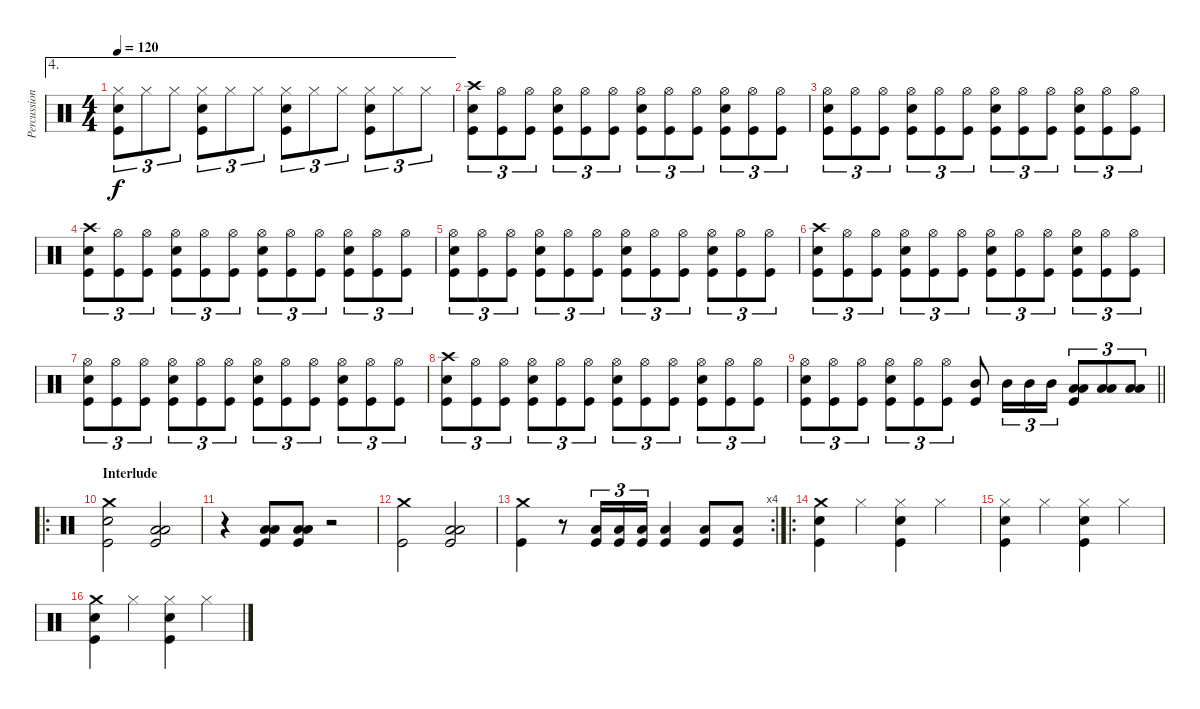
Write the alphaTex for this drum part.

\track ("Percussion" "Percussion") {instrument percussion}
\staff {score}
\articulation defaults
\ae 4
\ts (4 4)
\tempo 120
\clef neutral
\ks c
("Hi-Hat (closed)" "Snare (hit) 2" "Kick (hit)").8{tu (3 2) dy f} "Hi-Hat (closed)".8{tu (3 2)} "Hi-Hat (closed)".8{tu (3 2)} ("Hi-Hat (closed)" "Snare (hit) 2" "Kick (hit)").8{tu (3 2)} "Hi-Hat (closed)".8{tu (3 2)} "Hi-Hat (closed)".8{tu (3 2)} ("Hi-Hat (closed)" "Snare (hit) 2" "Kick (hit)").8{tu (3 2)} "Hi-Hat (closed)".8{tu (3 2)} "Hi-Hat (closed)".8{tu (3 2)} ("Hi-Hat (closed)" "Snare (hit) 2" "Kick (hit)").8{tu (3 2)} "Hi-Hat (closed)".8{tu (3 2)} "Hi-Hat (closed)".8{tu (3 2)} |
("Crash high (hit)" "Snare (hit) 2" "Kick (hit)").8{tu (3 2)} ("Hi-Hat (open)" "Kick (hit)").8{tu (3 2)} ("Hi-Hat (open)" "Kick (hit)").8{tu (3 2)} ("Hi-Hat (open)" "Snare (hit) 2" "Kick (hit)").8{tu (3 2)} ("Hi-Hat (open)" "Kick (hit)").8{tu (3 2)} ("Hi-Hat (open)" "Kick (hit)").8{tu (3 2)} ("Hi-Hat (open)" "Snare (hit) 2" "Kick (hit)").8{tu (3 2)} ("Hi-Hat (open)" "Kick (hit)").8{tu (3 2)} ("Hi-Hat (open)" "Kick (hit)").8{tu (3 2)} ("Hi-Hat (open)" "Snare (hit) 2" "Kick (hit)").8{tu (3 2)} ("Hi-Hat (open)" "Kick (hit)").8{tu (3 2)} ("Hi-Hat (open)" "Kick (hit)").8{tu (3 2)} |
("Hi-Hat (open)" "Snare (hit) 2" "Kick (hit)").8{tu (3 2)} ("Hi-Hat (open)" "Kick (hit)").8{tu (3 2)} ("Hi-Hat (open)" "Kick (hit)").8{tu (3 2)} ("Hi-Hat (open)" "Snare (hit) 2" "Kick (hit)").8{tu (3 2)} ("Hi-Hat (open)" "Kick (hit)").8{tu (3 2)} ("Hi-Hat (open)" "Kick (hit)").8{tu (3 2)} ("Hi-Hat (open)" "Snare (hit) 2" "Kick (hit)").8{tu (3 2)} ("Hi-Hat (open)" "Kick (hit)").8{tu (3 2)} ("Hi-Hat (open)" "Kick (hit)").8{tu (3 2)} ("Hi-Hat (open)" "Snare (hit) 2" "Kick (hit)").8{tu (3 2)} ("Hi-Hat (open)" "Kick (hit)").8{tu (3 2)} ("Hi-Hat (open)" "Kick (hit)").8{tu (3 2)} |
("Crash high (hit)" "Snare (hit) 2" "Kick (hit)").8{tu (3 2)} ("Hi-Hat (open)" "Kick (hit)").8{tu (3 2)} ("Hi-Hat (open)" "Kick (hit)").8{tu (3 2)} ("Hi-Hat (open)" "Snare (hit) 2" "Kick (hit)").8{tu (3 2)} ("Hi-Hat (open)" "Kick (hit)").8{tu (3 2)} ("Hi-Hat (open)" "Kick (hit)").8{tu (3 2)} ("Hi-Hat (open)" "Snare (hit) 2" "Kick (hit)").8{tu (3 2)} ("Hi-Hat (open)" "Kick (hit)").8{tu (3 2)} ("Hi-Hat (open)" "Kick (hit)").8{tu (3 2)} ("Hi-Hat (open)" "Snare (hit) 2" "Kick (hit)").8{tu (3 2)} ("Hi-Hat (open)" "Kick (hit)").8{tu (3 2)} ("Hi-Hat (open)" "Kick (hit)").8{tu (3 2)} |
("Hi-Hat (open)" "Snare (hit) 2" "Kick (hit)").8{tu (3 2)} ("Hi-Hat (open)" "Kick (hit)").8{tu (3 2)} ("Hi-Hat (open)" "Kick (hit)").8{tu (3 2)} ("Hi-Hat (open)" "Snare (hit) 2" "Kick (hit)").8{tu (3 2)} ("Hi-Hat (open)" "Kick (hit)").8{tu (3 2)} ("Hi-Hat (open)" "Kick (hit)").8{tu (3 2)} ("Hi-Hat (open)" "Snare (hit) 2" "Kick (hit)").8{tu (3 2)} ("Hi-Hat (open)" "Kick (hit)").8{tu (3 2)} ("Hi-Hat (open)" "Kick (hit)").8{tu (3 2)} ("Hi-Hat (open)" "Snare (hit) 2" "Kick (hit)").8{tu (3 2)} ("Hi-Hat (open)" "Kick (hit)").8{tu (3 2)} ("Hi-Hat (open)" "Kick (hit)").8{tu (3 2)} |
("Crash high (hit)" "Snare (hit) 2" "Kick (hit)").8{tu (3 2)} ("Hi-Hat (open)" "Kick (hit)").8{tu (3 2)} ("Hi-Hat (open)" "Kick (hit)").8{tu (3 2)} ("Hi-Hat (open)" "Snare (hit) 2" "Kick (hit)").8{tu (3 2)} ("Hi-Hat (open)" "Kick (hit)").8{tu (3 2)} ("Hi-Hat (open)" "Kick (hit)").8{tu (3 2)} ("Hi-Hat (open)" "Snare (hit) 2" "Kick (hit)").8{tu (3 2)} ("Hi-Hat (open)" "Kick (hit)").8{tu (3 2)} ("Hi-Hat (open)" "Kick (hit)").8{tu (3 2)} ("Hi-Hat (open)" "Snare (hit) 2" "Kick (hit)").8{tu (3 2)} ("Hi-Hat (open)" "Kick (hit)").8{tu (3 2)} ("Hi-Hat (open)" "Kick (hit)").8{tu (3 2)} |
("Hi-Hat (open)" "Snare (hit) 2" "Kick (hit)").8{tu (3 2)} ("Hi-Hat (open)" "Kick (hit)").8{tu (3 2)} ("Hi-Hat (open)" "Kick (hit)").8{tu (3 2)} ("Hi-Hat (open)" "Snare (hit) 2" "Kick (hit)").8{tu (3 2)} ("Hi-Hat (open)" "Kick (hit)").8{tu (3 2)} ("Hi-Hat (open)" "Kick (hit)").8{tu (3 2)} ("Hi-Hat (open)" "Snare (hit) 2" "Kick (hit)").8{tu (3 2)} ("Hi-Hat (open)" "Kick (hit)").8{tu (3 2)} ("Hi-Hat (open)" "Kick (hit)").8{tu (3 2)} ("Hi-Hat (open)" "Snare (hit) 2" "Kick (hit)").8{tu (3 2)} ("Hi-Hat (open)" "Kick (hit)").8{tu (3 2)} ("Hi-Hat (open)" "Kick (hit)").8{tu (3 2)} |
("Crash high (hit)" "Snare (hit) 2" "Kick (hit)").8{tu (3 2)} ("Hi-Hat (open)" "Kick (hit)").8{tu (3 2)} ("Hi-Hat (open)" "Kick (hit)").8{tu (3 2)} ("Hi-Hat (open)" "Snare (hit) 2" "Kick (hit)").8{tu (3 2)} ("Hi-Hat (open)" "Kick (hit)").8{tu (3 2)} ("Hi-Hat (open)" "Kick (hit)").8{tu (3 2)} ("Hi-Hat (open)" "Snare (hit) 2" "Kick (hit)").8{tu (3 2)} ("Hi-Hat (open)" "Kick (hit)").8{tu (3 2)} ("Hi-Hat (open)" "Kick (hit)").8{tu (3 2)} ("Hi-Hat (open)" "Snare (hit) 2" "Kick (hit)").8{tu (3 2)} ("Hi-Hat (open)" "Kick (hit)").8{tu (3 2)} ("Hi-Hat (open)" "Kick (hit)").8{tu (3 2)} |
\barLineRight lightlight
("Hi-Hat (open)" "Snare (hit) 2" "Kick (hit)").8{tu (3 2)} ("Hi-Hat (open)" "Kick (hit)").8{tu (3 2)} ("Hi-Hat (open)" "Kick (hit)").8{tu (3 2)} ("Hi-Hat (open)" "Snare (hit) 2" "Kick (hit)").8{tu (3 2)} ("Hi-Hat (open)" "Kick (hit)").8{tu (3 2)} ("Hi-Hat (open)" "Kick (hit)").8{tu (3 2)} ("Mid Tom (hit)" "Kick (hit)").8 "Mid Tom (hit)".16{tu (3 2)} "Mid Tom (hit)".16{tu (3 2)} "Mid Tom (hit)".16{tu (3 2)} ("Low Tom (hit)" "Low Tom (hit)" "Kick (hit)").8{tu (3 2)} ("Low Tom (hit)" "Low Tom (hit)").8{tu (3 2)} ("Low Tom (hit)" "Low Tom (hit)").8{tu (3 2)} |
\ro
\section ("" "Interlude")
("Crash medium (hit)" "Snare (hit) 2" "Kick (hit)").2 ("Low Tom (hit)" "Low Tom (hit)" "Kick (hit)").2 |
r.4 ("Low Tom (hit)" "Low Tom (hit)" "Kick (hit)").8 ("Low Tom (hit)" "Low Tom (hit)" "Kick (hit)").8 r.2 |
("Crash medium (hit)" "Kick (hit)").2 ("Low Tom (hit)" "Low Tom (hit)" "Kick (hit)").2 |
\rc 4
("Crash medium (hit)" "Kick (hit)").4 r.8 ("Low Tom (hit)" "Kick (hit)").16{tu (3 2)} ("Low Tom (hit)" "Kick (hit)").16{tu (3 2)} ("Low Tom (hit)" "Kick (hit)").16{tu (3 2)} ("Low Tom (hit)" "Kick (hit)").4 ("Low Tom (hit)" "Kick (hit)").8 ("Low Tom (hit)" "Kick (hit)").8 |
\ro
("Crash medium (hit)" "Snare (hit) 2" "Kick (hit)").4 "Hi-Hat (closed)".4 ("Hi-Hat (closed)" "Snare (hit) 2" "Kick (hit)").4 "Hi-Hat (closed)".4 |
("Hi-Hat (closed)" "Snare (hit) 2" "Kick (hit)").4 "Hi-Hat (closed)".4 ("Hi-Hat (closed)" "Snare (hit) 2" "Kick (hit)").4 "Hi-Hat (closed)".4 |
("Crash medium (hit)" "Snare (hit) 2" "Kick (hit)").4 "Hi-Hat (closed)".4 ("Hi-Hat (closed)" "Snare (hit) 2" "Kick (hit)").4 "Hi-Hat (closed)".4
